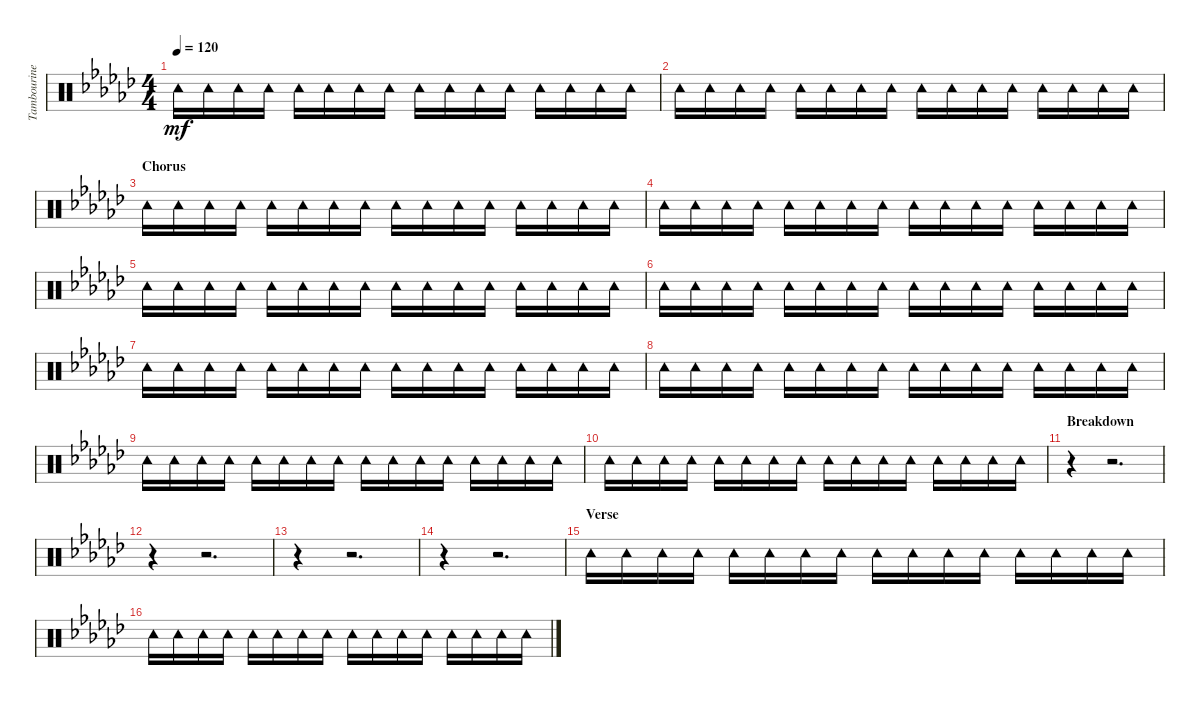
\track ("Tambourine" "Tambourine") {instrument percussion}
\staff {score}
\articulation defaults
\ts (4 4)
\tempo 120
\clef neutral
\ks ebminor "Tambourine (hit)".16{dy mf} "Tambourine (hit)".16 "Tambourine (hit)".16 "Tambourine (hit)".16 "Tambourine (hit)".16 "Tambourine (hit)".16 "Tambourine (hit)".16 "Tambourine (hit)".16 "Tambourine (hit)".16 "Tambourine (hit)".16 "Tambourine (hit)".16 "Tambourine (hit)".16 "Tambourine (hit)".16 "Tambourine (hit)".16 "Tambourine (hit)".16 "Tambourine (hit)".16
|
"Tambourine (hit)".16 "Tambourine (hit)".16 "Tambourine (hit)".16 "Tambourine (hit)".16 "Tambourine (hit)".16 "Tambourine (hit)".16 "Tambourine (hit)".16 "Tambourine (hit)".16 "Tambourine (hit)".16 "Tambourine (hit)".16 "Tambourine (hit)".16 "Tambourine (hit)".16 "Tambourine (hit)".16 "Tambourine (hit)".16 "Tambourine (hit)".16 "Tambourine (hit)".16 |
\section ("" "Chorus")
"Tambourine (hit)".16 "Tambourine (hit)".16 "Tambourine (hit)".16 "Tambourine (hit)".16 "Tambourine (hit)".16 "Tambourine (hit)".16 "Tambourine (hit)".16 "Tambourine (hit)".16 "Tambourine (hit)".16 "Tambourine (hit)".16 "Tambourine (hit)".16 "Tambourine (hit)".16 "Tambourine (hit)".16 "Tambourine (hit)".16 "Tambourine (hit)".16 "Tambourine (hit)".16 |
"Tambourine (hit)".16 "Tambourine (hit)".16 "Tambourine (hit)".16 "Tambourine (hit)".16 "Tambourine (hit)".16 "Tambourine (hit)".16 "Tambourine (hit)".16 "Tambourine (hit)".16 "Tambourine (hit)".16 "Tambourine (hit)".16 "Tambourine (hit)".16 "Tambourine (hit)".16 "Tambourine (hit)".16 "Tambourine (hit)".16 "Tambourine (hit)".16 "Tambourine (hit)".16 |
"Tambourine (hit)".16 "Tambourine (hit)".16 "Tambourine (hit)".16 "Tambourine (hit)".16 "Tambourine (hit)".16 "Tambourine (hit)".16 "Tambourine (hit)".16 "Tambourine (hit)".16 "Tambourine (hit)".16 "Tambourine (hit)".16 "Tambourine (hit)".16 "Tambourine (hit)".16 "Tambourine (hit)".16 "Tambourine (hit)".16 "Tambourine (hit)".16 "Tambourine (hit)".16 |
"Tambourine (hit)".16 "Tambourine (hit)".16 "Tambourine (hit)".16 "Tambourine (hit)".16 "Tambourine (hit)".16 "Tambourine (hit)".16 "Tambourine (hit)".16 "Tambourine (hit)".16 "Tambourine (hit)".16 "Tambourine (hit)".16 "Tambourine (hit)".16 "Tambourine (hit)".16 "Tambourine (hit)".16 "Tambourine (hit)".16 "Tambourine (hit)".16 "Tambourine (hit)".16 |
"Tambourine (hit)".16 "Tambourine (hit)".16 "Tambourine (hit)".16 "Tambourine (hit)".16 "Tambourine (hit)".16 "Tambourine (hit)".16 "Tambourine (hit)".16 "Tambourine (hit)".16 "Tambourine (hit)".16 "Tambourine (hit)".16 "Tambourine (hit)".16 "Tambourine (hit)".16 "Tambourine (hit)".16 "Tambourine (hit)".16 "Tambourine (hit)".16 "Tambourine (hit)".16 |
"Tambourine (hit)".16 "Tambourine (hit)".16 "Tambourine (hit)".16 "Tambourine (hit)".16 "Tambourine (hit)".16 "Tambourine (hit)".16 "Tambourine (hit)".16 "Tambourine (hit)".16 "Tambourine (hit)".16 "Tambourine (hit)".16 "Tambourine (hit)".16 "Tambourine (hit)".16 "Tambourine (hit)".16 "Tambourine (hit)".16 "Tambourine (hit)".16 "Tambourine (hit)".16 |
"Tambourine (hit)".16 "Tambourine (hit)".16 "Tambourine (hit)".16 "Tambourine (hit)".16 "Tambourine (hit)".16 "Tambourine (hit)".16 "Tambourine (hit)".16 "Tambourine (hit)".16 "Tambourine (hit)".16 "Tambourine (hit)".16 "Tambourine (hit)".16 "Tambourine (hit)".16 "Tambourine (hit)".16 "Tambourine (hit)".16 "Tambourine (hit)".16 "Tambourine (hit)".16 |
"Tambourine (hit)".16 "Tambourine (hit)".16 "Tambourine (hit)".16 "Tambourine (hit)".16 "Tambourine (hit)".16 "Tambourine (hit)".16 "Tambourine (hit)".16 "Tambourine (hit)".16 "Tambourine (hit)".16 "Tambourine (hit)".16 "Tambourine (hit)".16 "Tambourine (hit)".16 "Tambourine (hit)".16 "Tambourine (hit)".16 "Tambourine (hit)".16 "Tambourine (hit)".16 |
\section ("" "Breakdown")
r.4 r.2{d} |
r.4 r.2{d} |
r.4 r.2{d} |
r.4 r.2{d} |
\section ("" "Verse")
"Tambourine (hit)".16 "Tambourine (hit)".16 "Tambourine (hit)".16 "Tambourine (hit)".16 "Tambourine (hit)".16 "Tambourine (hit)".16 "Tambourine (hit)".16 "Tambourine (hit)".16 "Tambourine (hit)".16 "Tambourine (hit)".16 "Tambourine (hit)".16 "Tambourine (hit)".16 "Tambourine (hit)".16 "Tambourine (hit)".16 "Tambourine (hit)".16 "Tambourine (hit)".16 |
"Tambourine (hit)".16 "Tambourine (hit)".16 "Tambourine (hit)".16 "Tambourine (hit)".16 "Tambourine (hit)".16 "Tambourine (hit)".16 "Tambourine (hit)".16 "Tambourine (hit)".16 "Tambourine (hit)".16 "Tambourine (hit)".16 "Tambourine (hit)".16 "Tambourine (hit)".16 "Tambourine (hit)".16 "Tambourine (hit)".16 "Tambourine (hit)".16 "Tambourine (hit)".16
